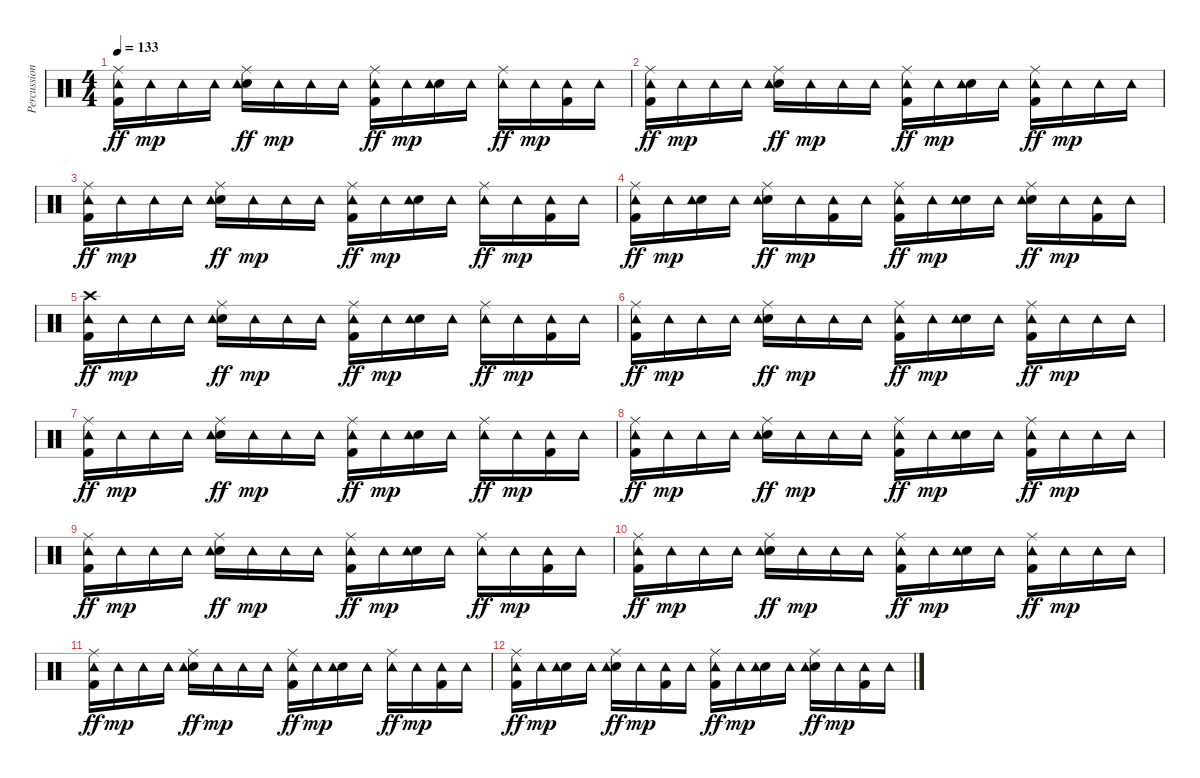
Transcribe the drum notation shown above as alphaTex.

\track ("Percussion" "Percussion") {instrument percussion}
\staff {score}
\articulation defaults
\ts (4 4)
\tempo 133
\clef neutral
\ks c
("Ride (middle)" "Kick (hit) 2" "Tambourine (hit)").16{dy ff} "Tambourine (hit)".16{dy mp} "Tambourine (hit)".16 "Tambourine (hit)".16 ("Ride (middle)" "Electric Snare (hit)" "Tambourine (hit)").16{dy ff} "Tambourine (hit)".16{dy mp} "Tambourine (hit)".16 "Tambourine (hit)".16 ("Ride (middle)" "Kick (hit) 2" "Tambourine (hit)").16{dy ff} "Tambourine (hit)".16{dy mp} ("Electric Snare (hit)" "Tambourine (hit)").16 "Tambourine (hit)".16 ("Ride (middle)" "Tambourine (hit)").16{dy ff} "Tambourine (hit)".16{dy mp} ("Kick (hit) 2" "Tambourine (hit)").16 "Tambourine (hit)".16 |
("Ride (middle)" "Kick (hit) 2" "Tambourine (hit)").16{dy ff} "Tambourine (hit)".16{dy mp} "Tambourine (hit)".16 "Tambourine (hit)".16 ("Ride (middle)" "Electric Snare (hit)" "Tambourine (hit)").16{dy ff} "Tambourine (hit)".16{dy mp} "Tambourine (hit)".16 "Tambourine (hit)".16 ("Ride (middle)" "Kick (hit) 2" "Tambourine (hit)").16{dy ff} "Tambourine (hit)".16{dy mp} ("Electric Snare (hit)" "Tambourine (hit)").16 "Tambourine (hit)".16 ("Ride (middle)" "Kick (hit) 2" "Tambourine (hit)").16{dy ff} "Tambourine (hit)".16{dy mp} "Tambourine (hit)".16 "Tambourine (hit)".16 |
("Ride (middle)" "Kick (hit) 2" "Tambourine (hit)").16{dy ff} "Tambourine (hit)".16{dy mp} "Tambourine (hit)".16 "Tambourine (hit)".16 ("Ride (middle)" "Electric Snare (hit)" "Tambourine (hit)").16{dy ff} "Tambourine (hit)".16{dy mp} "Tambourine (hit)".16 "Tambourine (hit)".16 ("Ride (middle)" "Kick (hit) 2" "Tambourine (hit)").16{dy ff} "Tambourine (hit)".16{dy mp} ("Electric Snare (hit)" "Tambourine (hit)").16 "Tambourine (hit)".16 ("Ride (middle)" "Tambourine (hit)").16{dy ff} "Tambourine (hit)".16{dy mp} ("Kick (hit) 2" "Tambourine (hit)").16 "Tambourine (hit)".16 |
("Ride (middle)" "Kick (hit) 2" "Tambourine (hit)").16{dy ff} "Tambourine (hit)".16{dy mp} ("Electric Snare (hit)" "Tambourine (hit)").16 "Tambourine (hit)".16 ("Ride (middle)" "Electric Snare (hit)" "Tambourine (hit)").16{dy ff} "Tambourine (hit)".16{dy mp} ("Kick (hit) 2" "Tambourine (hit)").16 "Tambourine (hit)".16 ("Ride (middle)" "Kick (hit) 2" "Tambourine (hit)").16{dy ff} "Tambourine (hit)".16{dy mp} ("Electric Snare (hit)" "Tambourine (hit)").16 "Tambourine (hit)".16 ("Ride (middle)" "Electric Snare (hit)" "Tambourine (hit)").16{dy ff} "Tambourine (hit)".16{dy mp} ("Kick (hit) 2" "Tambourine (hit)").16 "Tambourine (hit)".16 |
("Crash high (hit)" "Kick (hit) 2" "Tambourine (hit)").16{dy ff} "Tambourine (hit)".16{dy mp} "Tambourine (hit)".16 "Tambourine (hit)".16 ("Ride (middle)" "Electric Snare (hit)" "Tambourine (hit)").16{dy ff} "Tambourine (hit)".16{dy mp} "Tambourine (hit)".16 "Tambourine (hit)".16 ("Ride (middle)" "Kick (hit) 2" "Tambourine (hit)").16{dy ff} "Tambourine (hit)".16{dy mp} ("Electric Snare (hit)" "Tambourine (hit)").16 "Tambourine (hit)".16 ("Ride (middle)" "Tambourine (hit)").16{dy ff} "Tambourine (hit)".16{dy mp} ("Kick (hit) 2" "Tambourine (hit)").16 "Tambourine (hit)".16 |
("Ride (middle)" "Kick (hit) 2" "Tambourine (hit)").16{dy ff} "Tambourine (hit)".16{dy mp} "Tambourine (hit)".16 "Tambourine (hit)".16 ("Ride (middle)" "Electric Snare (hit)" "Tambourine (hit)").16{dy ff} "Tambourine (hit)".16{dy mp} "Tambourine (hit)".16 "Tambourine (hit)".16 ("Ride (middle)" "Kick (hit) 2" "Tambourine (hit)").16{dy ff} "Tambourine (hit)".16{dy mp} ("Electric Snare (hit)" "Tambourine (hit)").16 "Tambourine (hit)".16 ("Ride (middle)" "Kick (hit) 2" "Tambourine (hit)").16{dy ff} "Tambourine (hit)".16{dy mp} "Tambourine (hit)".16 "Tambourine (hit)".16 |
("Ride (middle)" "Kick (hit) 2" "Tambourine (hit)").16{dy ff} "Tambourine (hit)".16{dy mp} "Tambourine (hit)".16 "Tambourine (hit)".16 ("Ride (middle)" "Electric Snare (hit)" "Tambourine (hit)").16{dy ff} "Tambourine (hit)".16{dy mp} "Tambourine (hit)".16 "Tambourine (hit)".16 ("Ride (middle)" "Kick (hit) 2" "Tambourine (hit)").16{dy ff} "Tambourine (hit)".16{dy mp} ("Electric Snare (hit)" "Tambourine (hit)").16 "Tambourine (hit)".16 ("Ride (middle)" "Tambourine (hit)").16{dy ff} "Tambourine (hit)".16{dy mp} ("Kick (hit) 2" "Tambourine (hit)").16 "Tambourine (hit)".16 |
("Ride (middle)" "Kick (hit) 2" "Tambourine (hit)").16{dy ff} "Tambourine (hit)".16{dy mp} "Tambourine (hit)".16 "Tambourine (hit)".16 ("Ride (middle)" "Electric Snare (hit)" "Tambourine (hit)").16{dy ff} "Tambourine (hit)".16{dy mp} "Tambourine (hit)".16 "Tambourine (hit)".16 ("Ride (middle)" "Kick (hit) 2" "Tambourine (hit)").16{dy ff} "Tambourine (hit)".16{dy mp} ("Electric Snare (hit)" "Tambourine (hit)").16 "Tambourine (hit)".16 ("Ride (middle)" "Kick (hit) 2" "Tambourine (hit)").16{dy ff} "Tambourine (hit)".16{dy mp} "Tambourine (hit)".16 "Tambourine (hit)".16 |
("Ride (middle)" "Kick (hit) 2" "Tambourine (hit)").16{dy ff} "Tambourine (hit)".16{dy mp} "Tambourine (hit)".16 "Tambourine (hit)".16 ("Ride (middle)" "Electric Snare (hit)" "Tambourine (hit)").16{dy ff} "Tambourine (hit)".16{dy mp} "Tambourine (hit)".16 "Tambourine (hit)".16 ("Ride (middle)" "Kick (hit) 2" "Tambourine (hit)").16{dy ff} "Tambourine (hit)".16{dy mp} ("Electric Snare (hit)" "Tambourine (hit)").16 "Tambourine (hit)".16 ("Ride (middle)" "Tambourine (hit)").16{dy ff} "Tambourine (hit)".16{dy mp} ("Kick (hit) 2" "Tambourine (hit)").16 "Tambourine (hit)".16 |
("Ride (middle)" "Kick (hit) 2" "Tambourine (hit)").16{dy ff} "Tambourine (hit)".16{dy mp} "Tambourine (hit)".16 "Tambourine (hit)".16 ("Ride (middle)" "Electric Snare (hit)" "Tambourine (hit)").16{dy ff} "Tambourine (hit)".16{dy mp} "Tambourine (hit)".16 "Tambourine (hit)".16 ("Ride (middle)" "Kick (hit) 2" "Tambourine (hit)").16{dy ff} "Tambourine (hit)".16{dy mp} ("Electric Snare (hit)" "Tambourine (hit)").16 "Tambourine (hit)".16 ("Ride (middle)" "Kick (hit) 2" "Tambourine (hit)").16{dy ff} "Tambourine (hit)".16{dy mp} "Tambourine (hit)".16 "Tambourine (hit)".16 |
("Ride (middle)" "Kick (hit) 2" "Tambourine (hit)").16{dy ff} "Tambourine (hit)".16{dy mp} "Tambourine (hit)".16 "Tambourine (hit)".16 ("Ride (middle)" "Electric Snare (hit)" "Tambourine (hit)").16{dy ff} "Tambourine (hit)".16{dy mp} "Tambourine (hit)".16 "Tambourine (hit)".16 ("Ride (middle)" "Kick (hit) 2" "Tambourine (hit)").16{dy ff} "Tambourine (hit)".16{dy mp} ("Electric Snare (hit)" "Tambourine (hit)").16 "Tambourine (hit)".16 ("Ride (middle)" "Tambourine (hit)").16{dy ff} "Tambourine (hit)".16{dy mp} ("Kick (hit) 2" "Tambourine (hit)").16 "Tambourine (hit)".16 |
("Ride (middle)" "Kick (hit) 2" "Tambourine (hit)").16{dy ff} "Tambourine (hit)".16{dy mp} ("Electric Snare (hit)" "Tambourine (hit)").16 "Tambourine (hit)".16 ("Ride (middle)" "Electric Snare (hit)" "Tambourine (hit)").16{dy ff} "Tambourine (hit)".16{dy mp} ("Kick (hit) 2" "Tambourine (hit)").16 "Tambourine (hit)".16 ("Ride (middle)" "Kick (hit) 2" "Tambourine (hit)").16{dy ff} "Tambourine (hit)".16{dy mp} ("Electric Snare (hit)" "Tambourine (hit)").16 "Tambourine (hit)".16 ("Ride (middle)" "Electric Snare (hit)" "Tambourine (hit)").16{dy ff} "Tambourine (hit)".16{dy mp} ("Kick (hit) 2" "Tambourine (hit)").16 "Tambourine (hit)".16
